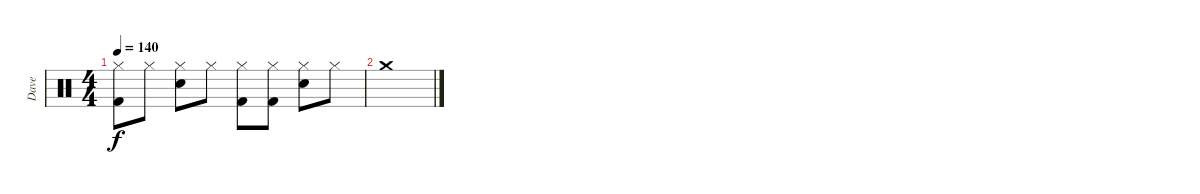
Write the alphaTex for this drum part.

\track ("Dave" "Dave") {instrument percussion}
\staff {score}
\articulation defaults
\ts (4 4)
\tempo 140
\clef neutral
\ks c
("Hi-Hat (closed)" "Kick (hit) 2").8{dy f} "Hi-Hat (closed)".8 ("Hi-Hat (closed)" "Electric Snare (hit)").8 "Hi-Hat (closed)".8 ("Hi-Hat (closed)" "Kick (hit) 2").8 ("Hi-Hat (closed)" "Kick (hit) 2").8 ("Hi-Hat (closed)" "Electric Snare (hit)").8 "Hi-Hat (closed)".8 |
"Crash medium (hit)".1
